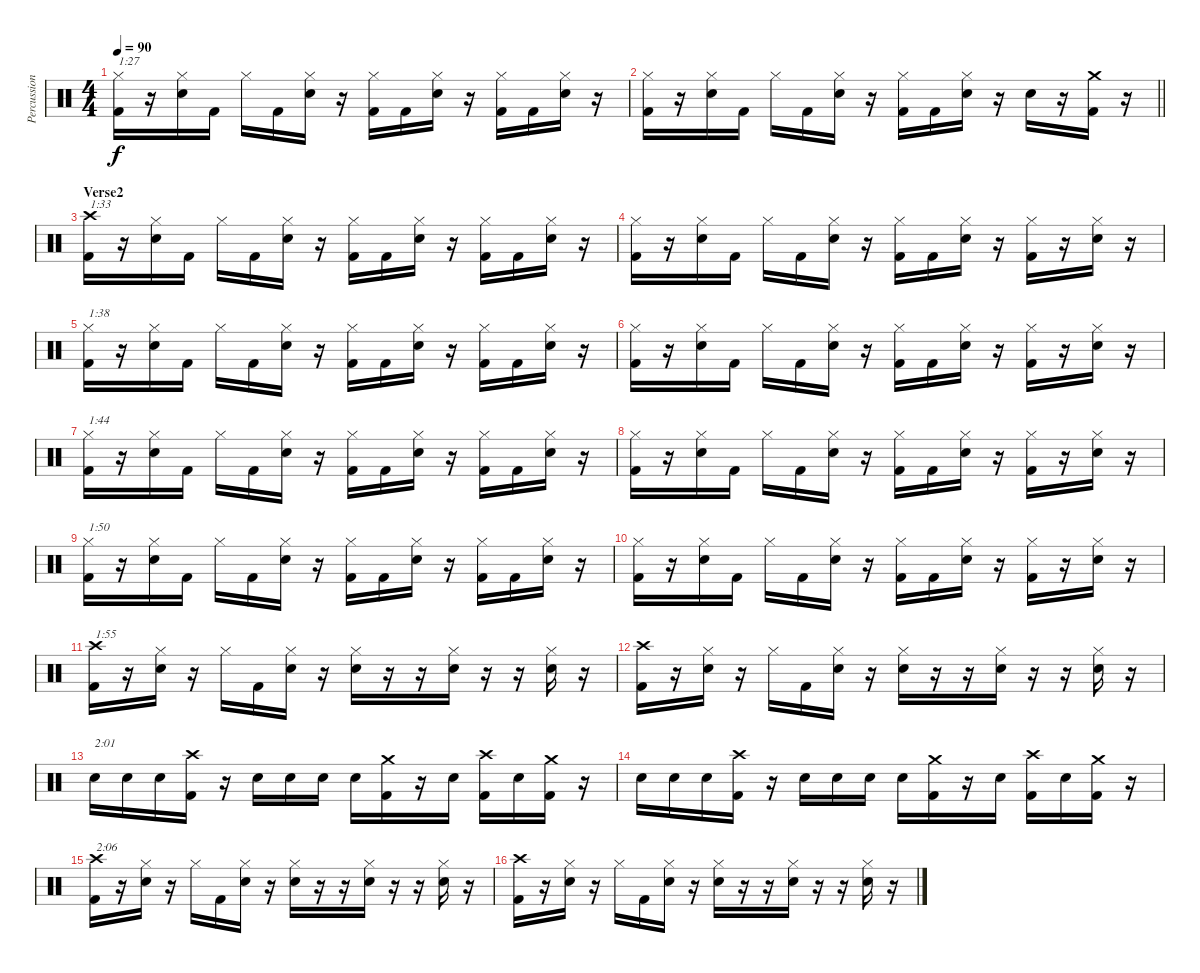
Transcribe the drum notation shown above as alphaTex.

\track ("Percussion" "Percussion") {instrument percussion}
\staff {score}
\articulation defaults
\ts (4 4)
\tempo 90
\clef neutral
\ks c
("Hi-Hat (closed)" "Kick (hit) 2").16{txt "1:27" dy f} r.16 ("Hi-Hat (closed)" "Snare (hit) 2").16 "Kick (hit) 2".16 "Hi-Hat (closed)".16 "Kick (hit) 2".16 ("Hi-Hat (closed)" "Snare (hit) 2").16 r.16 ("Hi-Hat (closed)" "Kick (hit) 2").16 "Kick (hit) 2".16 ("Hi-Hat (closed)" "Snare (hit) 2").16 r.16 ("Hi-Hat (closed)" "Kick (hit) 2").16 "Kick (hit) 2".16 ("Hi-Hat (closed)" "Snare (hit) 2").16 r.16 |
\barLineRight lightlight
("Hi-Hat (closed)" "Kick (hit) 2").16 r.16 ("Hi-Hat (closed)" "Snare (hit) 2").16 "Kick (hit) 2".16 "Hi-Hat (closed)".16 "Kick (hit) 2".16 ("Hi-Hat (closed)" "Snare (hit) 2").16 r.16 ("Hi-Hat (closed)" "Kick (hit) 2").16 "Kick (hit) 2".16 ("Hi-Hat (closed)" "Snare (hit) 2").16 r.16 "Snare (hit) 2".16 r.16 ("Crash medium (hit)" "Kick (hit) 2").16 r.16 |
\section ("" "Verse2")
("Crash high (hit)" "Kick (hit) 2").16{txt "1:33"} r.16 ("Hi-Hat (closed)" "Snare (hit) 2").16 "Kick (hit) 2".16 "Hi-Hat (closed)".16 "Kick (hit) 2".16 ("Hi-Hat (closed)" "Snare (hit) 2").16 r.16 ("Hi-Hat (closed)" "Kick (hit) 2").16 "Kick (hit) 2".16 ("Hi-Hat (closed)" "Snare (hit) 2").16 r.16 ("Hi-Hat (closed)" "Kick (hit) 2").16 "Kick (hit) 2".16 ("Hi-Hat (closed)" "Snare (hit) 2").16 r.16 |
("Hi-Hat (closed)" "Kick (hit) 2").16 r.16 ("Hi-Hat (closed)" "Snare (hit) 2").16 "Kick (hit) 2".16 "Hi-Hat (closed)".16 "Kick (hit) 2".16 ("Hi-Hat (closed)" "Snare (hit) 2").16 r.16 ("Hi-Hat (closed)" "Kick (hit) 2").16 "Kick (hit) 2".16 ("Hi-Hat (closed)" "Snare (hit) 2").16 r.16 ("Hi-Hat (closed)" "Kick (hit) 2").16 r.16 ("Hi-Hat (closed)" "Snare (hit) 2").16 r.16 |
("Hi-Hat (closed)" "Kick (hit) 2").16{txt "1:38"} r.16 ("Hi-Hat (closed)" "Snare (hit) 2").16 "Kick (hit) 2".16 "Hi-Hat (closed)".16 "Kick (hit) 2".16 ("Hi-Hat (closed)" "Snare (hit) 2").16 r.16 ("Hi-Hat (closed)" "Kick (hit) 2").16 "Kick (hit) 2".16 ("Hi-Hat (closed)" "Snare (hit) 2").16 r.16 ("Hi-Hat (closed)" "Kick (hit) 2").16 "Kick (hit) 2".16 ("Hi-Hat (closed)" "Snare (hit) 2").16 r.16 |
("Hi-Hat (closed)" "Kick (hit) 2").16 r.16 ("Hi-Hat (closed)" "Snare (hit) 2").16 "Kick (hit) 2".16 "Hi-Hat (closed)".16 "Kick (hit) 2".16 ("Hi-Hat (closed)" "Snare (hit) 2").16 r.16 ("Hi-Hat (closed)" "Kick (hit) 2").16 "Kick (hit) 2".16 ("Hi-Hat (closed)" "Snare (hit) 2").16 r.16 ("Hi-Hat (closed)" "Kick (hit) 2").16 r.16 ("Hi-Hat (closed)" "Snare (hit) 2").16 r.16 |
("Hi-Hat (closed)" "Kick (hit) 2").16{txt "1:44"} r.16 ("Hi-Hat (closed)" "Snare (hit) 2").16 "Kick (hit) 2".16 "Hi-Hat (closed)".16 "Kick (hit) 2".16 ("Hi-Hat (closed)" "Snare (hit) 2").16 r.16 ("Hi-Hat (closed)" "Kick (hit) 2").16 "Kick (hit) 2".16 ("Hi-Hat (closed)" "Snare (hit) 2").16 r.16 ("Hi-Hat (closed)" "Kick (hit) 2").16 "Kick (hit) 2".16 ("Hi-Hat (closed)" "Snare (hit) 2").16 r.16 |
("Hi-Hat (closed)" "Kick (hit) 2").16 r.16 ("Hi-Hat (closed)" "Snare (hit) 2").16 "Kick (hit) 2".16 "Hi-Hat (closed)".16 "Kick (hit) 2".16 ("Hi-Hat (closed)" "Snare (hit) 2").16 r.16 ("Hi-Hat (closed)" "Kick (hit) 2").16 "Kick (hit) 2".16 ("Hi-Hat (closed)" "Snare (hit) 2").16 r.16 ("Hi-Hat (closed)" "Kick (hit) 2").16 r.16 ("Hi-Hat (closed)" "Snare (hit) 2").16 r.16 |
("Hi-Hat (closed)" "Kick (hit) 2").16{txt "1:50"} r.16 ("Hi-Hat (closed)" "Snare (hit) 2").16 "Kick (hit) 2".16 "Hi-Hat (closed)".16 "Kick (hit) 2".16 ("Hi-Hat (closed)" "Snare (hit) 2").16 r.16 ("Hi-Hat (closed)" "Kick (hit) 2").16 "Kick (hit) 2".16 ("Hi-Hat (closed)" "Snare (hit) 2").16 r.16 ("Hi-Hat (closed)" "Kick (hit) 2").16 "Kick (hit) 2".16 ("Hi-Hat (closed)" "Snare (hit) 2").16 r.16 |
("Hi-Hat (closed)" "Kick (hit) 2").16 r.16 ("Hi-Hat (closed)" "Snare (hit) 2").16 "Kick (hit) 2".16 "Hi-Hat (closed)".16 "Kick (hit) 2".16 ("Hi-Hat (closed)" "Snare (hit) 2").16 r.16 ("Hi-Hat (closed)" "Kick (hit) 2").16 "Kick (hit) 2".16 ("Hi-Hat (closed)" "Snare (hit) 2").16 r.16 ("Hi-Hat (closed)" "Kick (hit) 2").16 r.16 ("Hi-Hat (closed)" "Snare (hit) 2").16 r.16 |
("Crash high (hit)" "Kick (hit) 2").16{txt "1:55"} r.16 ("Hi-Hat (closed)" "Snare (hit) 2").16 r.16 "Hi-Hat (closed)".16 "Kick (hit) 2".16 ("Hi-Hat (closed)" "Snare (hit) 2").16 r.16 ("Hi-Hat (closed)" "Snare (hit) 2").16 r.16 r.16 ("Hi-Hat (closed)" "Snare (hit) 2").16 r.16 r.16 ("Hi-Hat (closed)" "Snare (hit) 2").16 r.16 |
("Crash high (hit)" "Kick (hit) 2").16 r.16 ("Hi-Hat (closed)" "Snare (hit) 2").16 r.16 "Hi-Hat (closed)".16 "Kick (hit) 2".16 ("Hi-Hat (closed)" "Snare (hit) 2").16 r.16 ("Hi-Hat (closed)" "Snare (hit) 2").16 r.16 r.16 ("Hi-Hat (closed)" "Snare (hit) 2").16 r.16 r.16 ("Hi-Hat (closed)" "Snare (hit) 2").16 r.16 |
"Snare (hit) 2".16{txt "2:01"} "Snare (hit) 2".16 "Snare (hit) 2".16 ("Crash high (hit)" "Kick (hit) 2").16 r.16 "Snare (hit) 2".16 "Snare (hit) 2".16 "Snare (hit) 2".16 "Snare (hit) 2".16 ("Crash medium (hit)" "Kick (hit) 2").16 r.16 "Snare (hit) 2".16 ("Crash high (hit)" "Kick (hit) 2").16 "Snare (hit) 2".16 ("Crash medium (hit)" "Kick (hit) 2").16 r.16 |
"Snare (hit) 2".16 "Snare (hit) 2".16 "Snare (hit) 2".16 ("Crash high (hit)" "Kick (hit) 2").16 r.16 "Snare (hit) 2".16 "Snare (hit) 2".16 "Snare (hit) 2".16 "Snare (hit) 2".16 ("Crash medium (hit)" "Kick (hit) 2").16 r.16 "Snare (hit) 2".16 ("Crash high (hit)" "Kick (hit) 2").16 "Snare (hit) 2".16 ("Crash medium (hit)" "Kick (hit) 2").16 r.16 |
("Crash high (hit)" "Kick (hit) 2").16{txt "2:06"} r.16 ("Hi-Hat (closed)" "Snare (hit) 2").16 r.16 "Hi-Hat (closed)".16 "Kick (hit) 2".16 ("Hi-Hat (closed)" "Snare (hit) 2").16 r.16 ("Hi-Hat (closed)" "Snare (hit) 2").16 r.16 r.16 ("Hi-Hat (closed)" "Snare (hit) 2").16 r.16 r.16 ("Hi-Hat (closed)" "Snare (hit) 2").16 r.16 |
("Crash high (hit)" "Kick (hit) 2").16 r.16 ("Hi-Hat (closed)" "Snare (hit) 2").16 r.16 "Hi-Hat (closed)".16 "Kick (hit) 2".16 ("Hi-Hat (closed)" "Snare (hit) 2").16 r.16 ("Hi-Hat (closed)" "Snare (hit) 2").16 r.16 r.16 ("Hi-Hat (closed)" "Snare (hit) 2").16 r.16 r.16 ("Hi-Hat (closed)" "Snare (hit) 2").16 r.16
